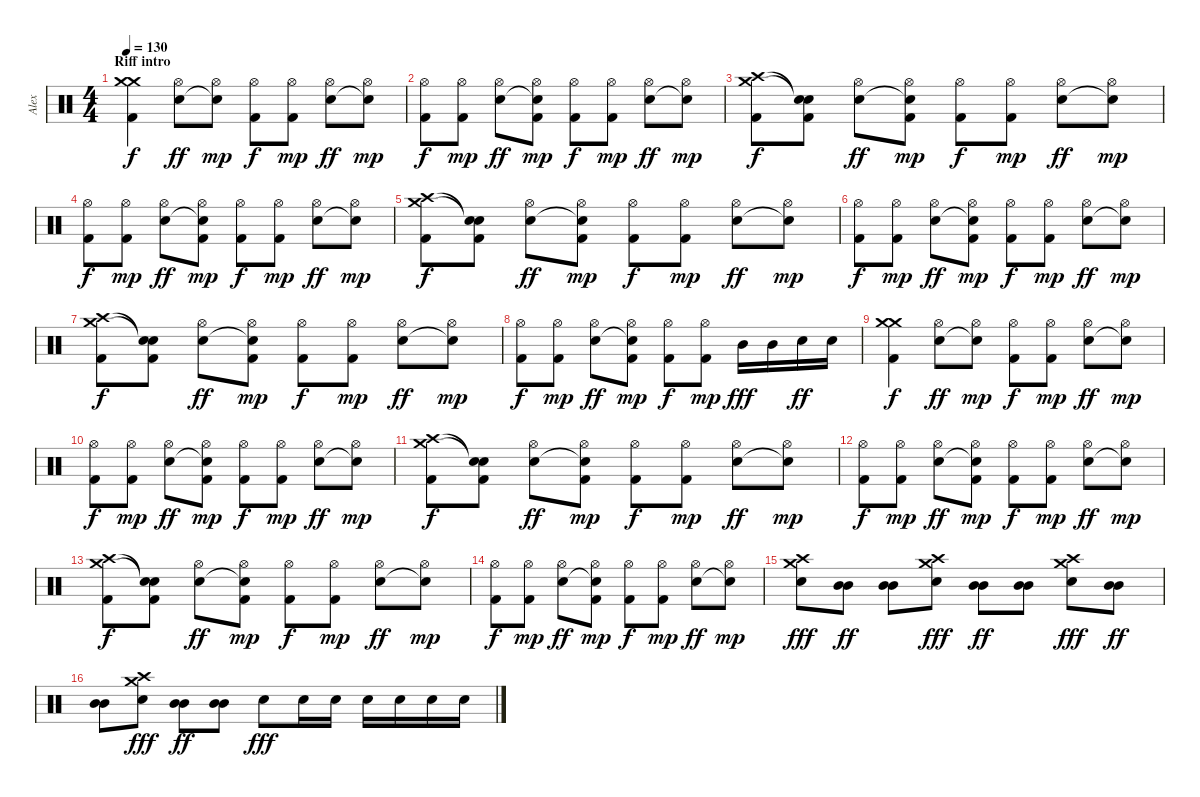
\track ("Alex" "Alex") {instrument percussion}
\staff {score}
\articulation defaults
\ts (4 4)
\section ("" "Riff intro")
\tempo 130
\clef neutral
\ks c
("Crash medium (hit)" "Crash medium (hit)" "Kick (hit) 2").4{dy f} ("Hi-Hat (open)" "Electric Snare (hit)").8{dy ff} ("Hi-Hat (open)" "Snare (hit)"{t}).8{dy mp} ("Hi-Hat (open)" "Kick (hit) 2").8{dy f} ("Hi-Hat (open)" "Kick (hit) 2").8{dy mp} ("Hi-Hat (open)" "Electric Snare (hit)").8{dy ff} ("Hi-Hat (open)" "Snare (hit)"{t}).8{dy mp} |
("Hi-Hat (open)" "Kick (hit) 2").8{dy f} ("Hi-Hat (open)" "Kick (hit) 2").8{dy mp} ("Hi-Hat (open)" "Electric Snare (hit)").8{dy ff} ("Hi-Hat (open)" "Snare (hit)"{t} "Kick (hit) 2").8{dy mp} ("Hi-Hat (open)" "Kick (hit) 2").8{dy f} ("Hi-Hat (open)" "Kick (hit) 2").8{dy mp} ("Hi-Hat (open)" "Electric Snare (hit)").8{dy ff} ("Hi-Hat (open)" "Snare (hit)"{t}).8{dy mp} |
("Crash medium (hit)" "Crash high (hit)" "Kick (hit) 2").8{dy f} ("Snare (hit)"{t} "Snare (hit)"{t} "Kick (hit) 2").8 ("Hi-Hat (open)" "Electric Snare (hit)").8{dy ff} ("Hi-Hat (open)" "Snare (hit)"{t} "Kick (hit) 2").8{dy mp} ("Hi-Hat (open)" "Kick (hit) 2").8{dy f} ("Hi-Hat (open)" "Kick (hit) 2").8{dy mp} ("Hi-Hat (open)" "Electric Snare (hit)").8{dy ff} ("Hi-Hat (open)" "Snare (hit)"{t}).8{dy mp} |
("Hi-Hat (open)" "Kick (hit) 2").8{dy f} ("Hi-Hat (open)" "Kick (hit) 2").8{dy mp} ("Hi-Hat (open)" "Electric Snare (hit)").8{dy ff} ("Hi-Hat (open)" "Snare (hit)"{t} "Kick (hit) 2").8{dy mp} ("Hi-Hat (open)" "Kick (hit) 2").8{dy f} ("Hi-Hat (open)" "Kick (hit) 2").8{dy mp} ("Hi-Hat (open)" "Electric Snare (hit)").8{dy ff} ("Hi-Hat (open)" "Snare (hit)"{t}).8{dy mp} |
("Crash medium (hit)" "Crash high (hit)" "Kick (hit) 2").8{dy f} ("Snare (hit)"{t} "Snare (hit)"{t} "Kick (hit) 2").8 ("Hi-Hat (open)" "Electric Snare (hit)").8{dy ff} ("Hi-Hat (open)" "Snare (hit)"{t} "Kick (hit) 2").8{dy mp} ("Hi-Hat (open)" "Kick (hit) 2").8{dy f} ("Hi-Hat (open)" "Kick (hit) 2").8{dy mp} ("Hi-Hat (open)" "Electric Snare (hit)").8{dy ff} ("Hi-Hat (open)" "Snare (hit)"{t}).8{dy mp} |
("Hi-Hat (open)" "Kick (hit) 2").8{dy f} ("Hi-Hat (open)" "Kick (hit) 2").8{dy mp} ("Hi-Hat (open)" "Electric Snare (hit)").8{dy ff} ("Hi-Hat (open)" "Snare (hit)"{t} "Kick (hit) 2").8{dy mp} ("Hi-Hat (open)" "Kick (hit) 2").8{dy f} ("Hi-Hat (open)" "Kick (hit) 2").8{dy mp} ("Hi-Hat (open)" "Electric Snare (hit)").8{dy ff} ("Hi-Hat (open)" "Snare (hit)"{t}).8{dy mp} |
("Crash medium (hit)" "Crash high (hit)" "Kick (hit) 2").8{dy f} ("Snare (hit)"{t} "Snare (hit)"{t} "Kick (hit) 2").8 ("Hi-Hat (open)" "Electric Snare (hit)").8{dy ff} ("Hi-Hat (open)" "Snare (hit)"{t} "Kick (hit) 2").8{dy mp} ("Hi-Hat (open)" "Kick (hit) 2").8{dy f} ("Hi-Hat (open)" "Kick (hit) 2").8{dy mp} ("Hi-Hat (open)" "Electric Snare (hit)").8{dy ff} ("Hi-Hat (open)" "Snare (hit)"{t}).8{dy mp} |
("Hi-Hat (open)" "Kick (hit) 2").8{dy f} ("Hi-Hat (open)" "Kick (hit) 2").8{dy mp} ("Hi-Hat (open)" "Electric Snare (hit)").8{dy ff} ("Hi-Hat (open)" "Snare (hit)"{t} "Kick (hit) 2").8{dy mp} ("Hi-Hat (open)" "Kick (hit) 2").8{dy f} ("Hi-Hat (open)" "Kick (hit) 2").8{dy mp} "Mid Tom (hit)".16{dy fff} "Mid Tom (hit)".16 "Electric Snare (hit)".16{dy ff} "Electric Snare (hit)".16 |
("Crash medium (hit)" "Crash medium (hit)" "Kick (hit) 2").4{dy f} ("Hi-Hat (open)" "Electric Snare (hit)").8{dy ff} ("Hi-Hat (open)" "Snare (hit)"{t}).8{dy mp} ("Hi-Hat (open)" "Kick (hit) 2").8{dy f} ("Hi-Hat (open)" "Kick (hit) 2").8{dy mp} ("Hi-Hat (open)" "Electric Snare (hit)").8{dy ff} ("Hi-Hat (open)" "Snare (hit)"{t}).8{dy mp} |
("Hi-Hat (open)" "Kick (hit) 2").8{dy f} ("Hi-Hat (open)" "Kick (hit) 2").8{dy mp} ("Hi-Hat (open)" "Electric Snare (hit)").8{dy ff} ("Hi-Hat (open)" "Snare (hit)"{t} "Kick (hit) 2").8{dy mp} ("Hi-Hat (open)" "Kick (hit) 2").8{dy f} ("Hi-Hat (open)" "Kick (hit) 2").8{dy mp} ("Hi-Hat (open)" "Electric Snare (hit)").8{dy ff} ("Hi-Hat (open)" "Snare (hit)"{t}).8{dy mp} |
("Crash medium (hit)" "Crash high (hit)" "Kick (hit) 2").8{dy f} ("Snare (hit)"{t} "Snare (hit)"{t} "Kick (hit) 2").8 ("Hi-Hat (open)" "Electric Snare (hit)").8{dy ff} ("Hi-Hat (open)" "Snare (hit)"{t} "Kick (hit) 2").8{dy mp} ("Hi-Hat (open)" "Kick (hit) 2").8{dy f} ("Hi-Hat (open)" "Kick (hit) 2").8{dy mp} ("Hi-Hat (open)" "Electric Snare (hit)").8{dy ff} ("Hi-Hat (open)" "Snare (hit)"{t}).8{dy mp} |
("Hi-Hat (open)" "Kick (hit) 2").8{dy f} ("Hi-Hat (open)" "Kick (hit) 2").8{dy mp} ("Hi-Hat (open)" "Electric Snare (hit)").8{dy ff} ("Hi-Hat (open)" "Snare (hit)"{t} "Kick (hit) 2").8{dy mp} ("Hi-Hat (open)" "Kick (hit) 2").8{dy f} ("Hi-Hat (open)" "Kick (hit) 2").8{dy mp} ("Hi-Hat (open)" "Electric Snare (hit)").8{dy ff} ("Hi-Hat (open)" "Snare (hit)"{t}).8{dy mp} |
("Crash medium (hit)" "Crash high (hit)" "Kick (hit) 2").8{dy f} ("Snare (hit)"{t} "Snare (hit)"{t} "Kick (hit) 2").8 ("Hi-Hat (open)" "Electric Snare (hit)").8{dy ff} ("Hi-Hat (open)" "Snare (hit)"{t} "Kick (hit) 2").8{dy mp} ("Hi-Hat (open)" "Kick (hit) 2").8{dy f} ("Hi-Hat (open)" "Kick (hit) 2").8{dy mp} ("Hi-Hat (open)" "Electric Snare (hit)").8{dy ff} ("Hi-Hat (open)" "Snare (hit)"{t}).8{dy mp} |
("Hi-Hat (open)" "Kick (hit) 2").8{dy f} ("Hi-Hat (open)" "Kick (hit) 2").8{dy mp} ("Hi-Hat (open)" "Electric Snare (hit)").8{dy ff} ("Hi-Hat (open)" "Snare (hit)"{t} "Kick (hit) 2").8{dy mp} ("Hi-Hat (open)" "Kick (hit) 2").8{dy f} ("Hi-Hat (open)" "Kick (hit) 2").8{dy mp} ("Hi-Hat (open)" "Electric Snare (hit)").8{dy ff} ("Hi-Hat (open)" "Snare (hit)"{t}).8{dy mp} |
("Crash high (hit)" "Crash medium (hit)" "Electric Snare (hit)").8{dy fff} ("Mid Tom (hit)" "Mid Tom (hit)").8{dy ff} ("Mid Tom (hit)" "Mid Tom (hit)").8 ("Crash high (hit)" "Crash medium (hit)" "Electric Snare (hit)").8{dy fff} ("Mid Tom (hit)" "Mid Tom (hit)").8{dy ff} ("Mid Tom (hit)" "Mid Tom (hit)").8 ("Crash high (hit)" "Crash medium (hit)" "Electric Snare (hit)").8{dy fff} ("Mid Tom (hit)" "Mid Tom (hit)").8{dy ff} |
("Mid Tom (hit)" "Mid Tom (hit)").8 ("Crash high (hit)" "Crash medium (hit)" "Electric Snare (hit)").8{dy fff} ("Mid Tom (hit)" "Mid Tom (hit)").8{dy ff} ("Mid Tom (hit)" "Mid Tom (hit)").8 "Electric Snare (hit)".8{dy fff} "Electric Snare (hit)".16 "Electric Snare (hit)".16 "Electric Snare (hit)".16 "Electric Snare (hit)".16 "Electric Snare (hit)".16 "Electric Snare (hit)".16
